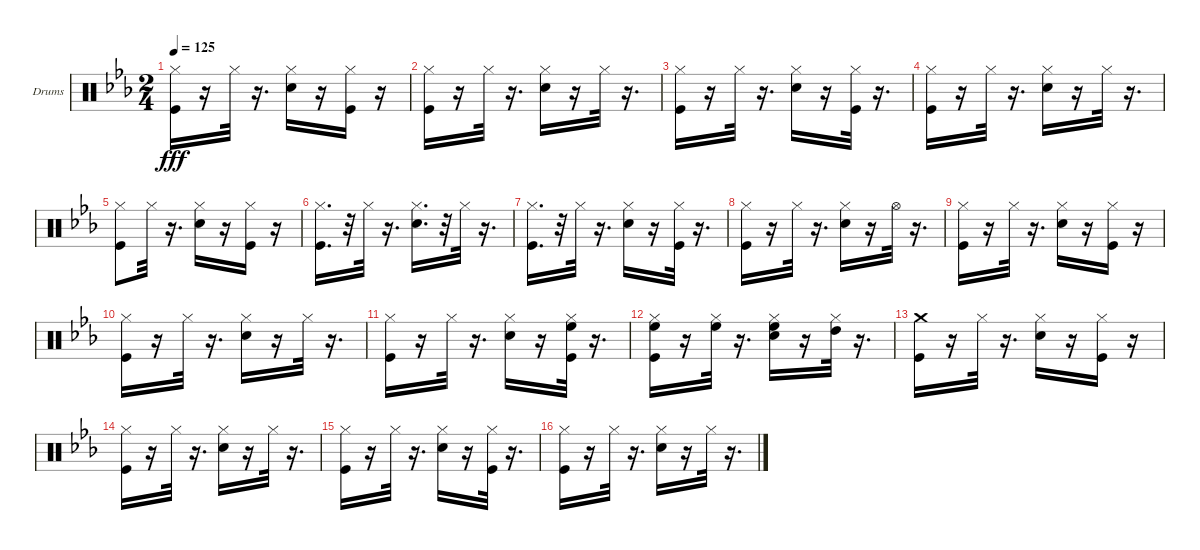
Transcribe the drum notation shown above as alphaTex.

\bracketExtendMode groupsimilarinstruments
\firstSystemTrackNameOrientation horizontal
\otherSystemsTrackNameOrientation horizontal
\track ("Ударные" "Drums") {instrument percussion}
\staff {score}
\articulation defaults
\ts (2 4)
\tempo 125
\clef neutral
\ks cminor
("Kick (hit)" "Hi-Hat (closed)").16{dy fff} r.16 "Hi-Hat (closed)".32 r.16{d} ("Snare (hit) 2" "Hi-Hat (closed)").16 r.16 ("Kick (hit)" "Hi-Hat (closed)").16 r.16 |
("Kick (hit)" "Hi-Hat (closed)").16 r.16 "Hi-Hat (closed)".32 r.16{d} ("Snare (hit) 2" "Hi-Hat (closed)").16 r.16 "Hi-Hat (closed)".32 r.16{d} |
("Kick (hit)" "Hi-Hat (closed)").16 r.16 "Hi-Hat (closed)".32 r.16{d} ("Snare (hit) 2" "Hi-Hat (closed)").16 r.16 ("Kick (hit)" "Hi-Hat (closed)").32 r.16{d} |
("Kick (hit)" "Hi-Hat (closed)").16 r.16 "Hi-Hat (closed)".32 r.16{d} ("Snare (hit) 2" "Hi-Hat (closed)").16 r.16 "Hi-Hat (closed)".32 r.16{d} |
("Kick (hit)" "Hi-Hat (closed)").8 "Hi-Hat (closed)".32 r.16{d} ("Snare (hit) 2" "Hi-Hat (closed)").16 r.16 ("Kick (hit)" "Hi-Hat (closed)").16 r.16 |
("Kick (hit)" "Hi-Hat (closed)").16{d} r.32 "Hi-Hat (closed)".32 r.16{d} ("Snare (hit) 2" "Hi-Hat (closed)").16{d} r.32 "Hi-Hat (closed)".32 r.16{d} |
("Kick (hit)" "Hi-Hat (closed)").16{d} r.32 "Hi-Hat (closed)".32 r.16{d} ("Snare (hit) 2" "Hi-Hat (closed)").16 r.16 ("Kick (hit)" "Hi-Hat (closed)").32 r.16{d} |
("Kick (hit)" "Hi-Hat (closed)").16 r.16 "Hi-Hat (closed)".32 r.16{d} ("Snare (hit) 2" "Hi-Hat (closed)").16 r.16 "Hi-Hat (open)".32 r.16{d} |
("Kick (hit)" "Hi-Hat (closed)").16 r.16 "Hi-Hat (closed)".32 r.16{d} ("Snare (hit) 2" "Hi-Hat (closed)").16 r.16 ("Kick (hit)" "Hi-Hat (closed)").16 r.16 |
("Kick (hit)" "Hi-Hat (closed)").16 r.16 "Hi-Hat (closed)".32 r.16{d} ("Snare (hit) 2" "Hi-Hat (closed)").16 r.16 "Hi-Hat (closed)".32 r.16{d} |
("Kick (hit)" "Hi-Hat (closed)").16 r.16 "Hi-Hat (closed)".32 r.16{d} ("Snare (hit) 2" "Hi-Hat (closed)").16 r.16 ("High Floor Tom (hit)" "Kick (hit)" "Hi-Hat (closed)").32 r.16{d} |
("High Floor Tom (hit)" "Kick (hit)" "Hi-Hat (closed)").16 r.16 ("High Floor Tom (hit)" "Hi-Hat (closed)").32 r.16{d} ("High Floor Tom (hit)" "Snare (hit) 2" "Hi-Hat (closed)").16 r.16 ("High Tom (hit)" "Hi-Hat (closed)").32 r.16{d} |
("Kick (hit)" "Crash medium (hit)").16 r.16 "Hi-Hat (closed)".32 r.16{d} ("Snare (hit) 2" "Hi-Hat (closed)").16 r.16 ("Kick (hit)" "Hi-Hat (closed)").16 r.16 |
("Kick (hit)" "Hi-Hat (closed)").16 r.16 "Hi-Hat (closed)".32 r.16{d} ("Snare (hit) 2" "Hi-Hat (closed)").16 r.16 "Hi-Hat (closed)".32 r.16{d} |
("Kick (hit)" "Hi-Hat (closed)").16 r.16 "Hi-Hat (closed)".32 r.16{d} ("Snare (hit) 2" "Hi-Hat (closed)").16 r.16 ("Kick (hit)" "Hi-Hat (closed)").32 r.16{d} |
("Kick (hit)" "Hi-Hat (closed)").16 r.16 "Hi-Hat (closed)".32 r.16{d} ("Snare (hit) 2" "Hi-Hat (closed)").16 r.16 "Hi-Hat (closed)".32 r.16{d}
